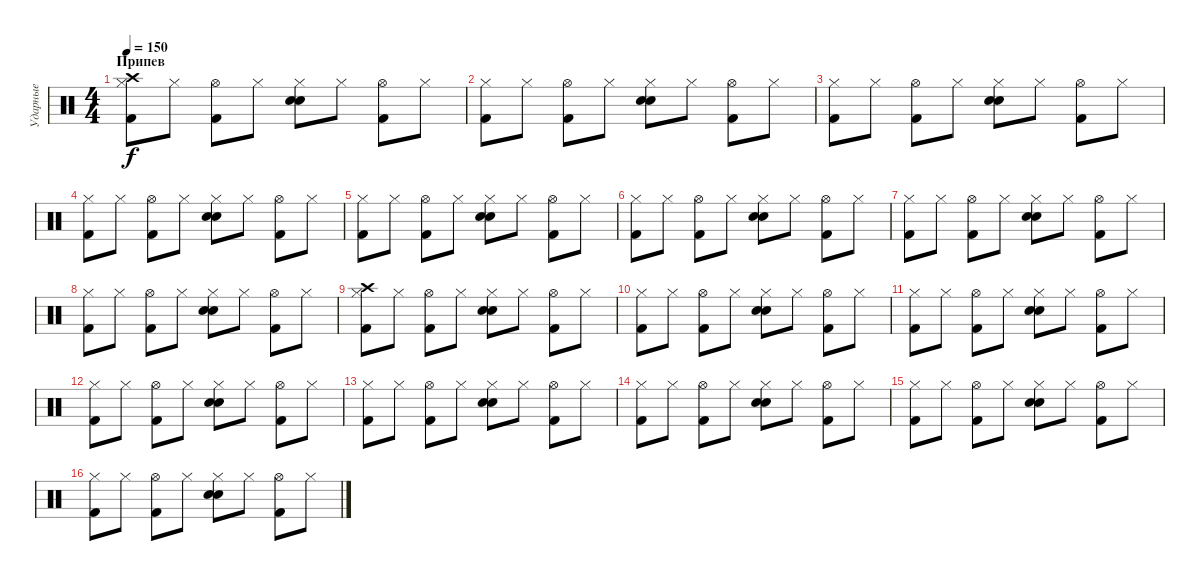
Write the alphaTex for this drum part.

\track ("Ударные" "Ударные") {instrument percussion}
\staff {score}
\articulation defaults
\ts (4 4)
\section ("" "Припев")
\tempo 150
\clef neutral
\ks c
("Hi-Hat (closed)" "Crash high (hit)" "Kick (hit) 2").8{dy f} "Hi-Hat (closed)".8 ("Hi-Hat (open)" "Kick (hit) 2").8 "Hi-Hat (closed)".8 ("Hi-Hat (closed)" "Electric Snare (hit)" "Snare (hit) 2").8 "Hi-Hat (closed)".8 ("Hi-Hat (open)" "Kick (hit) 2").8 "Hi-Hat (closed)".8 |
("Hi-Hat (closed)" "Kick (hit) 2").8 "Hi-Hat (closed)".8 ("Hi-Hat (open)" "Kick (hit) 2").8 "Hi-Hat (closed)".8 ("Hi-Hat (closed)" "Snare (hit) 2" "Electric Snare (hit)").8 "Hi-Hat (closed)".8 ("Hi-Hat (open)" "Kick (hit) 2").8 "Hi-Hat (closed)".8 |
("Hi-Hat (closed)" "Kick (hit) 2").8 "Hi-Hat (closed)".8 ("Hi-Hat (open)" "Kick (hit) 2").8 "Hi-Hat (closed)".8 ("Hi-Hat (closed)" "Electric Snare (hit)" "Snare (hit) 2").8 "Hi-Hat (closed)".8 ("Hi-Hat (open)" "Kick (hit) 2").8 "Hi-Hat (closed)".8 |
("Hi-Hat (closed)" "Kick (hit) 2").8 "Hi-Hat (closed)".8 ("Hi-Hat (open)" "Kick (hit) 2").8 "Hi-Hat (closed)".8 ("Hi-Hat (closed)" "Electric Snare (hit)" "Snare (hit) 2").8 "Hi-Hat (closed)".8 ("Hi-Hat (open)" "Kick (hit) 2").8 "Hi-Hat (closed)".8 |
("Hi-Hat (closed)" "Kick (hit) 2").8 "Hi-Hat (closed)".8 ("Hi-Hat (open)" "Kick (hit) 2").8 "Hi-Hat (closed)".8 ("Hi-Hat (closed)" "Snare (hit) 2" "Electric Snare (hit)").8 "Hi-Hat (closed)".8 ("Hi-Hat (open)" "Kick (hit) 2").8 "Hi-Hat (closed)".8 |
("Hi-Hat (closed)" "Kick (hit) 2").8 "Hi-Hat (closed)".8 ("Hi-Hat (open)" "Kick (hit) 2").8 "Hi-Hat (closed)".8 ("Hi-Hat (closed)" "Snare (hit) 2" "Electric Snare (hit)").8 "Hi-Hat (closed)".8 ("Hi-Hat (open)" "Kick (hit) 2").8 "Hi-Hat (closed)".8 |
("Hi-Hat (closed)" "Kick (hit) 2").8 "Hi-Hat (closed)".8 ("Hi-Hat (open)" "Kick (hit) 2").8 "Hi-Hat (closed)".8 ("Hi-Hat (closed)" "Snare (hit) 2" "Electric Snare (hit)").8 "Hi-Hat (closed)".8 ("Hi-Hat (open)" "Kick (hit) 2").8 "Hi-Hat (closed)".8 |
("Hi-Hat (closed)" "Kick (hit) 2").8 "Hi-Hat (closed)".8 ("Hi-Hat (open)" "Kick (hit) 2").8 "Hi-Hat (closed)".8 ("Hi-Hat (closed)" "Snare (hit) 2" "Electric Snare (hit)").8 "Hi-Hat (closed)".8 ("Hi-Hat (open)" "Kick (hit) 2").8 "Hi-Hat (closed)".8 |
("Hi-Hat (closed)" "Crash high (hit)" "Kick (hit) 2").8 "Hi-Hat (closed)".8 ("Hi-Hat (open)" "Kick (hit) 2").8 "Hi-Hat (closed)".8 ("Hi-Hat (closed)" "Snare (hit) 2" "Electric Snare (hit)").8 "Hi-Hat (closed)".8 ("Hi-Hat (open)" "Kick (hit) 2").8 "Hi-Hat (closed)".8 |
("Hi-Hat (closed)" "Kick (hit) 2").8 "Hi-Hat (closed)".8 ("Hi-Hat (open)" "Kick (hit) 2").8 "Hi-Hat (closed)".8 ("Hi-Hat (closed)" "Snare (hit) 2" "Electric Snare (hit)").8 "Hi-Hat (closed)".8 ("Hi-Hat (open)" "Kick (hit) 2").8 "Hi-Hat (closed)".8 |
("Hi-Hat (closed)" "Kick (hit) 2").8 "Hi-Hat (closed)".8 ("Hi-Hat (open)" "Kick (hit) 2").8 "Hi-Hat (closed)".8 ("Hi-Hat (closed)" "Snare (hit) 2" "Electric Snare (hit)").8 "Hi-Hat (closed)".8 ("Hi-Hat (open)" "Kick (hit) 2").8 "Hi-Hat (closed)".8 |
("Hi-Hat (closed)" "Kick (hit) 2").8 "Hi-Hat (closed)".8 ("Hi-Hat (open)" "Kick (hit) 2").8 "Hi-Hat (closed)".8 ("Hi-Hat (closed)" "Snare (hit) 2" "Electric Snare (hit)").8 "Hi-Hat (closed)".8 ("Hi-Hat (open)" "Kick (hit) 2").8 "Hi-Hat (closed)".8 |
("Hi-Hat (closed)" "Kick (hit) 2").8 "Hi-Hat (closed)".8 ("Hi-Hat (open)" "Kick (hit) 2").8 "Hi-Hat (closed)".8 ("Hi-Hat (closed)" "Snare (hit) 2" "Electric Snare (hit)").8 "Hi-Hat (closed)".8 ("Hi-Hat (open)" "Kick (hit) 2").8 "Hi-Hat (closed)".8 |
("Hi-Hat (closed)" "Kick (hit) 2").8 "Hi-Hat (closed)".8 ("Hi-Hat (open)" "Kick (hit) 2").8 "Hi-Hat (closed)".8 ("Hi-Hat (closed)" "Snare (hit) 2" "Electric Snare (hit)").8 "Hi-Hat (closed)".8 ("Hi-Hat (open)" "Kick (hit) 2").8 "Hi-Hat (closed)".8 |
("Hi-Hat (closed)" "Kick (hit) 2").8 "Hi-Hat (closed)".8 ("Hi-Hat (open)" "Kick (hit) 2").8 "Hi-Hat (closed)".8 ("Hi-Hat (closed)" "Snare (hit) 2" "Electric Snare (hit)").8 "Hi-Hat (closed)".8 ("Hi-Hat (open)" "Kick (hit) 2").8 "Hi-Hat (closed)".8 |
("Hi-Hat (closed)" "Kick (hit) 2").8 "Hi-Hat (closed)".8 ("Hi-Hat (open)" "Kick (hit) 2").8 "Hi-Hat (closed)".8 ("Hi-Hat (closed)" "Snare (hit) 2" "Electric Snare (hit)").8 "Hi-Hat (closed)".8 ("Hi-Hat (open)" "Kick (hit) 2").8 "Hi-Hat (closed)".8
